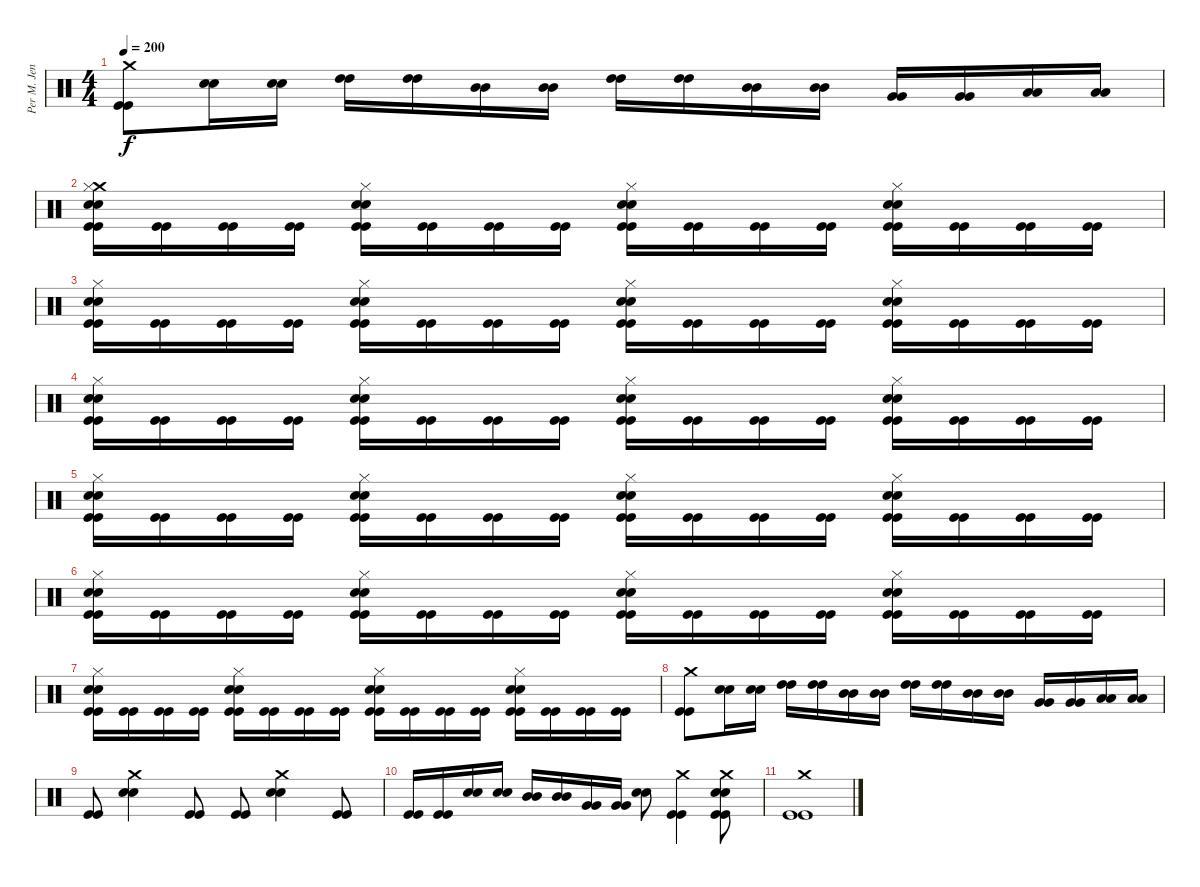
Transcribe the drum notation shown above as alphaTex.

\track ("Per M. Jensen" "Per M. Jen") {instrument percussion}
\staff {score}
\articulation defaults
\ts (4 4)
\tempo 200
\clef neutral
\ks c
("Crash medium (hit)" "Kick (hit)" "Kick (hit)").8{dy f} ("Snare (hit) 2" "Snare (hit) 2").16 ("Snare (hit) 2" "Snare (hit) 2").16 ("High Tom (hit)" "High Tom (hit)").16 ("High Tom (hit)" "High Tom (hit)").16 ("Mid Tom (hit)" "Mid Tom (hit)").16 ("Mid Tom (hit)" "Mid Tom (hit)").16 ("High Tom (hit)" "High Tom (hit)").16 ("High Tom (hit)" "High Tom (hit)").16 ("Mid Tom (hit)" "Mid Tom (hit)").16 ("Mid Tom (hit)" "Mid Tom (hit)").16 ("Very Low Tom (hit)" "Very Low Tom (hit)").16 ("Very Low Tom (hit)" "Very Low Tom (hit)").16 ("Low Floor Tom (hit)" "Low Floor Tom (hit)").16 ("Low Floor Tom (hit)" "Low Floor Tom (hit)").16 |
("Crash medium (hit)" "Hi-Hat (closed)" "Snare (hit) 2" "Snare (hit) 2" "Kick (hit)" "Kick (hit)").16 ("Kick (hit)" "Kick (hit)").16 ("Kick (hit)" "Kick (hit)").16 ("Kick (hit)" "Kick (hit)").16 ("Hi-Hat (closed)" "Snare (hit) 2" "Snare (hit) 2" "Kick (hit)" "Kick (hit)").16 ("Kick (hit)" "Kick (hit)").16 ("Kick (hit)" "Kick (hit)").16 ("Kick (hit)" "Kick (hit)").16 ("Hi-Hat (closed)" "Snare (hit) 2" "Snare (hit) 2" "Kick (hit)" "Kick (hit)").16 ("Kick (hit)" "Kick (hit)").16 ("Kick (hit)" "Kick (hit)").16 ("Kick (hit)" "Kick (hit)").16 ("Hi-Hat (closed)" "Snare (hit) 2" "Snare (hit) 2" "Kick (hit)" "Kick (hit)").16 ("Kick (hit)" "Kick (hit)").16 ("Kick (hit)" "Kick (hit)").16 ("Kick (hit)" "Kick (hit)").16 |
("Hi-Hat (closed)" "Snare (hit) 2" "Snare (hit) 2" "Kick (hit)" "Kick (hit)").16 ("Kick (hit)" "Kick (hit)").16 ("Kick (hit)" "Kick (hit)").16 ("Kick (hit)" "Kick (hit)").16 ("Hi-Hat (closed)" "Snare (hit) 2" "Snare (hit) 2" "Kick (hit)" "Kick (hit)").16 ("Kick (hit)" "Kick (hit)").16 ("Kick (hit)" "Kick (hit)").16 ("Kick (hit)" "Kick (hit)").16 ("Hi-Hat (closed)" "Snare (hit) 2" "Snare (hit) 2" "Kick (hit)" "Kick (hit)").16 ("Kick (hit)" "Kick (hit)").16 ("Kick (hit)" "Kick (hit)").16 ("Kick (hit)" "Kick (hit)").16 ("Hi-Hat (closed)" "Snare (hit) 2" "Snare (hit) 2" "Kick (hit)" "Kick (hit)").16 ("Kick (hit)" "Kick (hit)").16 ("Kick (hit)" "Kick (hit)").16 ("Kick (hit)" "Kick (hit)").16 |
("Hi-Hat (closed)" "Snare (hit) 2" "Snare (hit) 2" "Kick (hit)" "Kick (hit)").16 ("Kick (hit)" "Kick (hit)").16 ("Kick (hit)" "Kick (hit)").16 ("Kick (hit)" "Kick (hit)").16 ("Hi-Hat (closed)" "Snare (hit) 2" "Snare (hit) 2" "Kick (hit)" "Kick (hit)").16 ("Kick (hit)" "Kick (hit)").16 ("Kick (hit)" "Kick (hit)").16 ("Kick (hit)" "Kick (hit)").16 ("Hi-Hat (closed)" "Snare (hit) 2" "Snare (hit) 2" "Kick (hit)" "Kick (hit)").16 ("Kick (hit)" "Kick (hit)").16 ("Kick (hit)" "Kick (hit)").16 ("Kick (hit)" "Kick (hit)").16 ("Hi-Hat (closed)" "Snare (hit) 2" "Snare (hit) 2" "Kick (hit)" "Kick (hit)").16 ("Kick (hit)" "Kick (hit)").16 ("Kick (hit)" "Kick (hit)").16 ("Kick (hit)" "Kick (hit)").16 |
("Hi-Hat (closed)" "Snare (hit) 2" "Snare (hit) 2" "Kick (hit)" "Kick (hit)").16 ("Kick (hit)" "Kick (hit)").16 ("Kick (hit)" "Kick (hit)").16 ("Kick (hit)" "Kick (hit)").16 ("Hi-Hat (closed)" "Snare (hit) 2" "Snare (hit) 2" "Kick (hit)" "Kick (hit)").16 ("Kick (hit)" "Kick (hit)").16 ("Kick (hit)" "Kick (hit)").16 ("Kick (hit)" "Kick (hit)").16 ("Hi-Hat (closed)" "Snare (hit) 2" "Snare (hit) 2" "Kick (hit)" "Kick (hit)").16 ("Kick (hit)" "Kick (hit)").16 ("Kick (hit)" "Kick (hit)").16 ("Kick (hit)" "Kick (hit)").16 ("Hi-Hat (closed)" "Snare (hit) 2" "Snare (hit) 2" "Kick (hit)" "Kick (hit)").16 ("Kick (hit)" "Kick (hit)").16 ("Kick (hit)" "Kick (hit)").16 ("Kick (hit)" "Kick (hit)").16 |
("Hi-Hat (closed)" "Snare (hit) 2" "Snare (hit) 2" "Kick (hit)" "Kick (hit)").16 ("Kick (hit)" "Kick (hit)").16 ("Kick (hit)" "Kick (hit)").16 ("Kick (hit)" "Kick (hit)").16 ("Hi-Hat (closed)" "Snare (hit) 2" "Snare (hit) 2" "Kick (hit)" "Kick (hit)").16 ("Kick (hit)" "Kick (hit)").16 ("Kick (hit)" "Kick (hit)").16 ("Kick (hit)" "Kick (hit)").16 ("Hi-Hat (closed)" "Snare (hit) 2" "Snare (hit) 2" "Kick (hit)" "Kick (hit)").16 ("Kick (hit)" "Kick (hit)").16 ("Kick (hit)" "Kick (hit)").16 ("Kick (hit)" "Kick (hit)").16 ("Hi-Hat (closed)" "Snare (hit) 2" "Snare (hit) 2" "Kick (hit)" "Kick (hit)").16 ("Kick (hit)" "Kick (hit)").16 ("Kick (hit)" "Kick (hit)").16 ("Kick (hit)" "Kick (hit)").16 |
("Hi-Hat (closed)" "Snare (hit) 2" "Snare (hit) 2" "Kick (hit)" "Kick (hit)").16 ("Kick (hit)" "Kick (hit)").16 ("Kick (hit)" "Kick (hit)").16 ("Kick (hit)" "Kick (hit)").16 ("Hi-Hat (closed)" "Snare (hit) 2" "Snare (hit) 2" "Kick (hit)" "Kick (hit)").16 ("Kick (hit)" "Kick (hit)").16 ("Kick (hit)" "Kick (hit)").16 ("Kick (hit)" "Kick (hit)").16 ("Hi-Hat (closed)" "Snare (hit) 2" "Snare (hit) 2" "Kick (hit)" "Kick (hit)").16 ("Kick (hit)" "Kick (hit)").16 ("Kick (hit)" "Kick (hit)").16 ("Kick (hit)" "Kick (hit)").16 ("Hi-Hat (closed)" "Snare (hit) 2" "Snare (hit) 2" "Kick (hit)" "Kick (hit)").16 ("Kick (hit)" "Kick (hit)").16 ("Kick (hit)" "Kick (hit)").16 ("Kick (hit)" "Kick (hit)").16 |
("Crash medium (hit)" "Kick (hit)" "Kick (hit)").8 ("Snare (hit) 2" "Snare (hit) 2").16 ("Snare (hit) 2" "Snare (hit) 2").16 ("High Tom (hit)" "High Tom (hit)").16 ("High Tom (hit)" "High Tom (hit)").16 ("Mid Tom (hit)" "Mid Tom (hit)").16 ("Mid Tom (hit)" "Mid Tom (hit)").16 ("High Tom (hit)" "High Tom (hit)").16 ("High Tom (hit)" "High Tom (hit)").16 ("Mid Tom (hit)" "Mid Tom (hit)").16 ("Mid Tom (hit)" "Mid Tom (hit)").16 ("Very Low Tom (hit)" "Very Low Tom (hit)").16 ("Very Low Tom (hit)" "Very Low Tom (hit)").16 ("Low Floor Tom (hit)" "Low Floor Tom (hit)").16 ("Low Floor Tom (hit)" "Low Floor Tom (hit)").16 |
("Kick (hit)" "Kick (hit)").8 ("Crash medium (hit)" "Snare (hit) 2" "Snare (hit) 2").4 ("Kick (hit)" "Kick (hit)").8 ("Kick (hit)" "Kick (hit)").8 ("Crash medium (hit)" "Snare (hit) 2" "Snare (hit) 2").4 ("Kick (hit)" "Kick (hit)").8 |
("Kick (hit)" "Kick (hit)").16 ("Kick (hit)" "Kick (hit)").16 ("Snare (hit) 2" "Snare (hit) 2").16 ("Snare (hit) 2" "Snare (hit) 2").16 ("Mid Tom (hit)" "Mid Tom (hit)").16 ("Mid Tom (hit)" "Mid Tom (hit)").16 ("Very Low Tom (hit)" "Very Low Tom (hit)").16 ("Very Low Tom (hit)" "Very Low Tom (hit)").16 ("Snare (hit) 2" "Snare (hit) 2").8 ("Crash medium (hit)" "Kick (hit)" "Kick (hit)").4 ("Crash medium (hit)" "Snare (hit) 2" "Snare (hit) 2" "Kick (hit)" "Kick (hit)").8 |
("Crash medium (hit)" "Kick (hit)" "Kick (hit)").1
